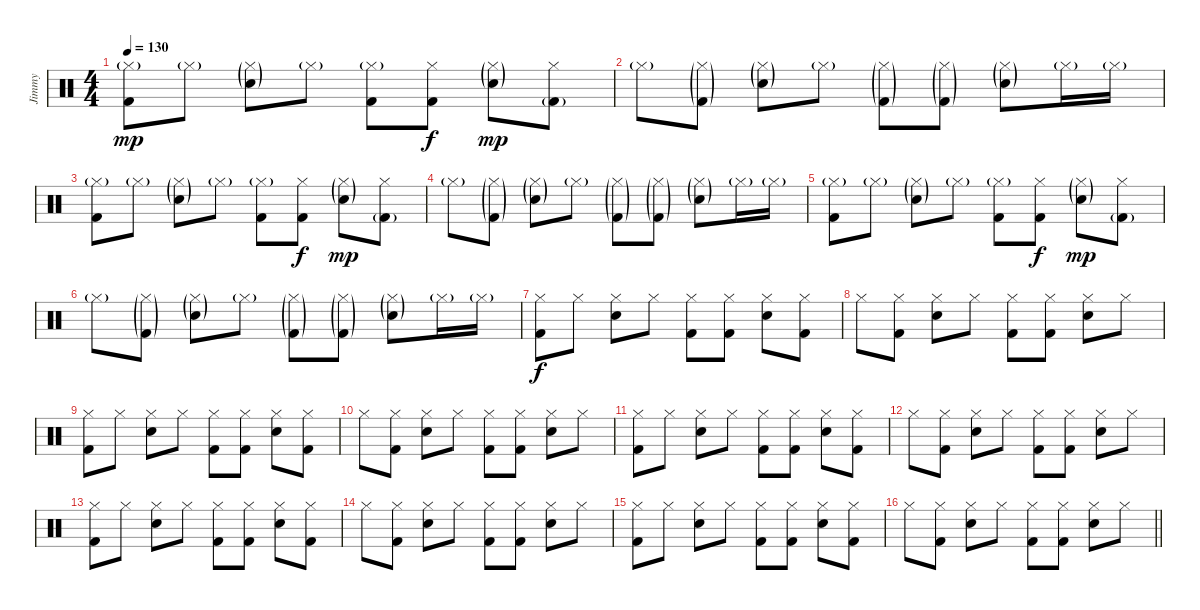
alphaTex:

\track ("Jimmy" "Jimmy") {instrument percussion}
\staff {score}
\articulation defaults
\ts (4 4)
\tempo 130
\clef neutral
\ks c
("Hi-Hat (closed)"{g} "Kick (hit) 2").8{dy mp} "Hi-Hat (closed)"{g}.8 ("Hi-Hat (closed)"{g} "Electric Snare (hit)"{g}).8 "Hi-Hat (closed)"{g}.8 ("Hi-Hat (closed)"{g} "Kick (hit) 2").8 ("Hi-Hat (closed)" "Kick (hit) 2").8{dy f} ("Hi-Hat (closed)"{g} "Electric Snare (hit)"{g}).8{dy mp} ("Hi-Hat (closed)" "Kick (hit) 2"{g}).8 |
"Hi-Hat (closed)"{g}.8 ("Hi-Hat (closed)"{g} "Kick (hit) 2"{g}).8 ("Hi-Hat (closed)"{g} "Electric Snare (hit)"{g}).8 "Hi-Hat (closed)"{g}.8 ("Hi-Hat (closed)"{g} "Kick (hit) 2"{g}).8 ("Hi-Hat (closed)"{g} "Kick (hit) 2"{g}).8 ("Hi-Hat (closed)"{g} "Electric Snare (hit)"{g}).8 "Hi-Hat (closed)"{g}.16 "Hi-Hat (closed)"{g}.16 |
("Hi-Hat (closed)"{g} "Kick (hit) 2").8 "Hi-Hat (closed)"{g}.8 ("Hi-Hat (closed)"{g} "Electric Snare (hit)"{g}).8 "Hi-Hat (closed)"{g}.8 ("Hi-Hat (closed)"{g} "Kick (hit) 2").8 ("Hi-Hat (closed)" "Kick (hit) 2").8{dy f} ("Hi-Hat (closed)"{g} "Electric Snare (hit)"{g}).8{dy mp} ("Hi-Hat (closed)" "Kick (hit) 2"{g}).8 |
"Hi-Hat (closed)"{g}.8 ("Hi-Hat (closed)"{g} "Kick (hit) 2"{g}).8 ("Hi-Hat (closed)"{g} "Electric Snare (hit)"{g}).8 "Hi-Hat (closed)"{g}.8 ("Hi-Hat (closed)"{g} "Kick (hit) 2"{g}).8 ("Hi-Hat (closed)"{g} "Kick (hit) 2"{g}).8 ("Hi-Hat (closed)"{g} "Electric Snare (hit)"{g}).8 "Hi-Hat (closed)"{g}.16 "Hi-Hat (closed)"{g}.16 |
("Hi-Hat (closed)"{g} "Kick (hit) 2").8 "Hi-Hat (closed)"{g}.8 ("Hi-Hat (closed)"{g} "Electric Snare (hit)"{g}).8 "Hi-Hat (closed)"{g}.8 ("Hi-Hat (closed)"{g} "Kick (hit) 2").8 ("Hi-Hat (closed)" "Kick (hit) 2").8{dy f} ("Hi-Hat (closed)"{g} "Electric Snare (hit)"{g}).8{dy mp} ("Hi-Hat (closed)" "Kick (hit) 2"{g}).8 |
"Hi-Hat (closed)"{g}.8 ("Hi-Hat (closed)"{g} "Kick (hit) 2"{g}).8 ("Hi-Hat (closed)"{g} "Electric Snare (hit)"{g}).8 "Hi-Hat (closed)"{g}.8 ("Hi-Hat (closed)"{g} "Kick (hit) 2"{g}).8 ("Hi-Hat (closed)"{g} "Kick (hit) 2"{g}).8 ("Hi-Hat (closed)"{g} "Electric Snare (hit)"{g}).8 "Hi-Hat (closed)"{g}.16 "Hi-Hat (closed)"{g}.16 |
("Hi-Hat (closed)" "Kick (hit) 2").8{dy f} "Hi-Hat (closed)".8 ("Hi-Hat (closed)" "Electric Snare (hit)").8 "Hi-Hat (closed)".8 ("Hi-Hat (closed)" "Kick (hit) 2").8 ("Hi-Hat (closed)" "Kick (hit) 2").8 ("Hi-Hat (closed)" "Electric Snare (hit)").8 ("Hi-Hat (closed)" "Kick (hit) 2").8 |
"Hi-Hat (closed)".8 ("Hi-Hat (closed)" "Kick (hit) 2").8 ("Hi-Hat (closed)" "Electric Snare (hit)").8 "Hi-Hat (closed)".8 ("Hi-Hat (closed)" "Kick (hit) 2").8 ("Hi-Hat (closed)" "Kick (hit) 2").8 ("Hi-Hat (closed)" "Electric Snare (hit)").8 "Hi-Hat (closed)".8 |
("Hi-Hat (closed)" "Kick (hit) 2").8 "Hi-Hat (closed)".8 ("Hi-Hat (closed)" "Electric Snare (hit)").8 "Hi-Hat (closed)".8 ("Hi-Hat (closed)" "Kick (hit) 2").8 ("Hi-Hat (closed)" "Kick (hit) 2").8 ("Hi-Hat (closed)" "Electric Snare (hit)").8 ("Hi-Hat (closed)" "Kick (hit) 2").8 |
"Hi-Hat (closed)".8 ("Hi-Hat (closed)" "Kick (hit) 2").8 ("Hi-Hat (closed)" "Electric Snare (hit)").8 "Hi-Hat (closed)".8 ("Hi-Hat (closed)" "Kick (hit) 2").8 ("Hi-Hat (closed)" "Kick (hit) 2").8 ("Hi-Hat (closed)" "Electric Snare (hit)").8 "Hi-Hat (closed)".8 |
("Hi-Hat (closed)" "Kick (hit) 2").8 "Hi-Hat (closed)".8 ("Hi-Hat (closed)" "Electric Snare (hit)").8 "Hi-Hat (closed)".8 ("Hi-Hat (closed)" "Kick (hit) 2").8 ("Hi-Hat (closed)" "Kick (hit) 2").8 ("Hi-Hat (closed)" "Electric Snare (hit)").8 ("Hi-Hat (closed)" "Kick (hit) 2").8 |
"Hi-Hat (closed)".8 ("Hi-Hat (closed)" "Kick (hit) 2").8 ("Hi-Hat (closed)" "Electric Snare (hit)").8 "Hi-Hat (closed)".8 ("Hi-Hat (closed)" "Kick (hit) 2").8 ("Hi-Hat (closed)" "Kick (hit) 2").8 ("Hi-Hat (closed)" "Electric Snare (hit)").8 "Hi-Hat (closed)".8 |
("Hi-Hat (closed)" "Kick (hit) 2").8 "Hi-Hat (closed)".8 ("Hi-Hat (closed)" "Electric Snare (hit)").8 "Hi-Hat (closed)".8 ("Hi-Hat (closed)" "Kick (hit) 2").8 ("Hi-Hat (closed)" "Kick (hit) 2").8 ("Hi-Hat (closed)" "Electric Snare (hit)").8 ("Hi-Hat (closed)" "Kick (hit) 2").8 |
"Hi-Hat (closed)".8 ("Hi-Hat (closed)" "Kick (hit) 2").8 ("Hi-Hat (closed)" "Electric Snare (hit)").8 "Hi-Hat (closed)".8 ("Hi-Hat (closed)" "Kick (hit) 2").8 ("Hi-Hat (closed)" "Kick (hit) 2").8 ("Hi-Hat (closed)" "Electric Snare (hit)").8 "Hi-Hat (closed)".8 |
("Hi-Hat (closed)" "Kick (hit) 2").8 "Hi-Hat (closed)".8 ("Hi-Hat (closed)" "Electric Snare (hit)").8 "Hi-Hat (closed)".8 ("Hi-Hat (closed)" "Kick (hit) 2").8 ("Hi-Hat (closed)" "Kick (hit) 2").8 ("Hi-Hat (closed)" "Electric Snare (hit)").8 ("Hi-Hat (closed)" "Kick (hit) 2").8 |
\barLineRight lightlight "Hi-Hat (closed)".8
("Hi-Hat (closed)" "Kick (hit) 2").8 ("Hi-Hat (closed)" "Electric Snare (hit)").8 "Hi-Hat (closed)".8 ("Hi-Hat (closed)" "Kick (hit) 2").8 ("Hi-Hat (closed)" "Kick (hit) 2").8 ("Hi-Hat (closed)" "Electric Snare (hit)").8 "Hi-Hat (closed)".8
